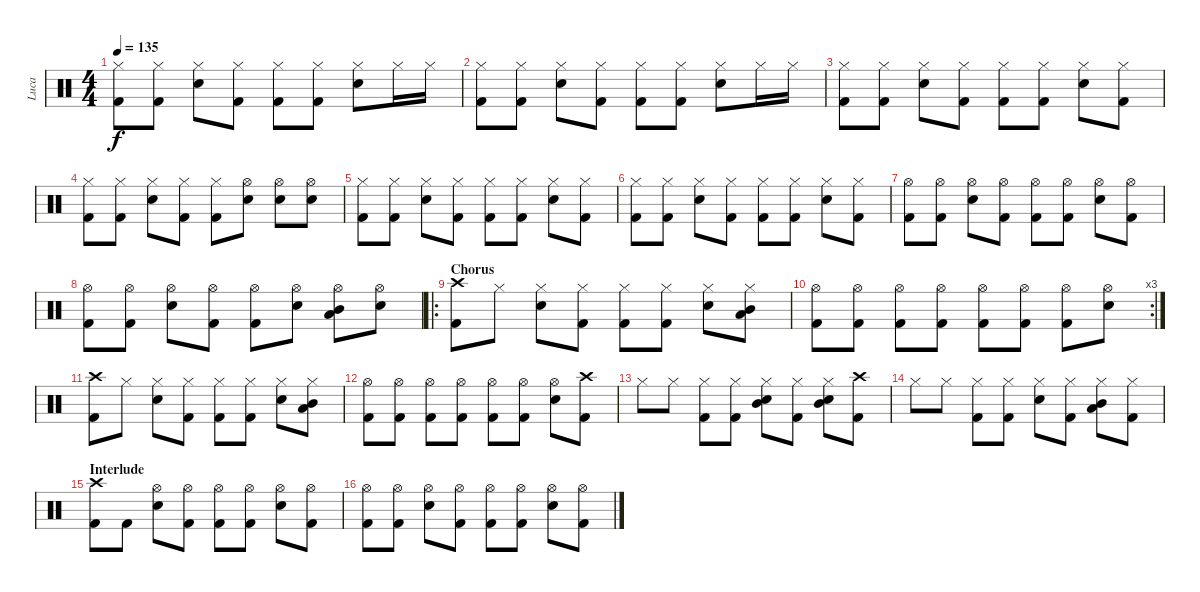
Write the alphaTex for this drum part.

\track ("Luca" "Luca") {instrument percussion}
\staff {score}
\articulation defaults
\ts (4 4)
\tempo 135
\clef neutral
\ks c
("Hi-Hat (closed)" "Kick (hit) 2").8{dy f} ("Hi-Hat (closed)" "Kick (hit) 2").8 ("Hi-Hat (closed)" "Snare (hit) 2").8 ("Hi-Hat (closed)" "Kick (hit) 2").8 ("Hi-Hat (closed)" "Kick (hit) 2").8 ("Hi-Hat (closed)" "Kick (hit) 2").8 ("Hi-Hat (closed)" "Snare (hit) 2").8 "Hi-Hat (closed)".16 "Hi-Hat (closed)".16 |
("Hi-Hat (closed)" "Kick (hit) 2").8 ("Hi-Hat (closed)" "Kick (hit) 2").8 ("Hi-Hat (closed)" "Snare (hit) 2").8 ("Hi-Hat (closed)" "Kick (hit) 2").8 ("Hi-Hat (closed)" "Kick (hit) 2").8 ("Hi-Hat (closed)" "Kick (hit) 2").8 ("Hi-Hat (closed)" "Snare (hit) 2").8 "Hi-Hat (closed)".16 "Hi-Hat (closed)".16 |
("Hi-Hat (closed)" "Kick (hit) 2").8 ("Hi-Hat (closed)" "Kick (hit) 2").8 ("Hi-Hat (closed)" "Snare (hit) 2").8 ("Hi-Hat (closed)" "Kick (hit) 2").8 ("Hi-Hat (closed)" "Kick (hit) 2").8 ("Hi-Hat (closed)" "Kick (hit) 2").8 ("Hi-Hat (closed)" "Snare (hit) 2").8 ("Hi-Hat (closed)" "Kick (hit) 2").8 |
("Hi-Hat (closed)" "Kick (hit) 2").8 ("Hi-Hat (closed)" "Kick (hit) 2").8 ("Hi-Hat (closed)" "Snare (hit) 2").8 ("Hi-Hat (closed)" "Kick (hit) 2").8 ("Hi-Hat (closed)" "Kick (hit) 2").8 ("Hi-Hat (open)" "Snare (hit) 2").8 ("Hi-Hat (open)" "Snare (hit) 2").8 ("Hi-Hat (open)" "Snare (hit) 2").8 |
("Hi-Hat (closed)" "Kick (hit) 2").8 ("Hi-Hat (closed)" "Kick (hit) 2").8 ("Hi-Hat (closed)" "Snare (hit) 2").8 ("Hi-Hat (closed)" "Kick (hit) 2").8 ("Hi-Hat (closed)" "Kick (hit) 2").8 ("Hi-Hat (closed)" "Kick (hit) 2").8 ("Hi-Hat (closed)" "Snare (hit) 2").8 ("Hi-Hat (closed)" "Kick (hit) 2").8 |
("Hi-Hat (closed)" "Kick (hit) 2").8 ("Hi-Hat (closed)" "Kick (hit) 2").8 ("Hi-Hat (closed)" "Snare (hit) 2").8 ("Hi-Hat (closed)" "Kick (hit) 2").8 ("Hi-Hat (closed)" "Kick (hit) 2").8 ("Hi-Hat (closed)" "Kick (hit) 2").8 ("Hi-Hat (closed)" "Snare (hit) 2").8 ("Hi-Hat (closed)" "Kick (hit) 2").8 |
("Hi-Hat (open)" "Kick (hit) 2").8 ("Hi-Hat (open)" "Kick (hit) 2").8 ("Hi-Hat (open)" "Snare (hit) 2").8 ("Hi-Hat (open)" "Kick (hit) 2").8 ("Hi-Hat (open)" "Kick (hit) 2").8 ("Hi-Hat (open)" "Kick (hit) 2").8 ("Hi-Hat (open)" "Snare (hit) 2").8 ("Hi-Hat (open)" "Kick (hit) 2").8 |
("Hi-Hat (open)" "Kick (hit) 2").8 ("Hi-Hat (open)" "Kick (hit) 2").8 ("Hi-Hat (open)" "Snare (hit) 2").8 ("Hi-Hat (open)" "Kick (hit) 2").8 ("Hi-Hat (open)" "Kick (hit) 2").8 ("Hi-Hat (open)" "Snare (hit) 2").8 ("Hi-Hat (open)" "Mid Tom (hit)" "Low Tom (hit)").8 ("Hi-Hat (open)" "Snare (hit) 2").8 |
\ro
\section ("" "Chorus")
("Crash high (hit)" "Kick (hit) 2").8 "Hi-Hat (closed)".8 ("Hi-Hat (closed)" "Snare (hit) 2").8 ("Hi-Hat (closed)" "Kick (hit) 2").8 ("Hi-Hat (closed)" "Kick (hit) 2").8 ("Hi-Hat (closed)" "Kick (hit) 2").8 ("Hi-Hat (closed)" "Snare (hit) 2").8 ("Hi-Hat (closed)" "Mid Tom (hit)" "Low Tom (hit)").8 |
\rc 3
("Hi-Hat (open)" "Kick (hit) 2").8 ("Hi-Hat (open)" "Kick (hit) 2").8 ("Hi-Hat (open)" "Kick (hit) 2").8 ("Hi-Hat (open)" "Kick (hit) 2").8 ("Hi-Hat (open)" "Kick (hit) 2").8 ("Hi-Hat (open)" "Kick (hit) 2").8 ("Hi-Hat (open)" "Kick (hit) 2").8 ("Hi-Hat (open)" "Snare (hit) 2").8 |
("Crash high (hit)" "Kick (hit) 2").8 "Hi-Hat (closed)".8 ("Hi-Hat (closed)" "Snare (hit) 2").8 ("Hi-Hat (closed)" "Kick (hit) 2").8 ("Hi-Hat (closed)" "Kick (hit) 2").8 ("Hi-Hat (closed)" "Kick (hit) 2").8 ("Hi-Hat (closed)" "Snare (hit) 2").8 ("Hi-Hat (closed)" "Mid Tom (hit)" "Low Tom (hit)").8 |
("Hi-Hat (open)" "Kick (hit) 2").8 ("Hi-Hat (open)" "Kick (hit) 2").8 ("Hi-Hat (open)" "Kick (hit) 2").8 ("Hi-Hat (open)" "Kick (hit) 2").8 ("Hi-Hat (open)" "Kick (hit) 2").8 ("Hi-Hat (open)" "Kick (hit) 2").8 ("Hi-Hat (open)" "Snare (hit) 2").8 ("Crash high (hit)" "Kick (hit) 2").8 |
"Hi-Hat (closed)".8 "Hi-Hat (closed)".8 ("Hi-Hat (closed)" "Kick (hit) 2").8 ("Hi-Hat (closed)" "Kick (hit) 2").8 ("Hi-Hat (closed)" "Mid Tom (hit)" "Snare (hit) 2").8 ("Hi-Hat (closed)" "Kick (hit) 2").8 ("Hi-Hat (closed)" "Mid Tom (hit)" "Snare (hit) 2").8 ("Crash high (hit)" "Kick (hit) 2").8 |
"Hi-Hat (closed)".8 "Hi-Hat (closed)".8 ("Hi-Hat (closed)" "Kick (hit) 2").8 ("Hi-Hat (closed)" "Kick (hit) 2").8 ("Hi-Hat (closed)" "Snare (hit) 2").8 ("Hi-Hat (closed)" "Kick (hit) 2").8 ("Hi-Hat (closed)" "Mid Tom (hit)" "Low Tom (hit)").8 ("Hi-Hat (closed)" "Kick (hit) 2").8 |
\section ("" "Interlude")
("Crash high (hit)" "Kick (hit) 2").8 "Kick (hit) 2".8 ("Hi-Hat (open)" "Snare (hit) 2").8 ("Hi-Hat (open)" "Kick (hit) 2").8 ("Hi-Hat (open)" "Kick (hit) 2").8 ("Hi-Hat (open)" "Kick (hit) 2").8 ("Hi-Hat (open)" "Snare (hit) 2").8 ("Hi-Hat (open)" "Kick (hit) 2").8 |
("Hi-Hat (open)" "Kick (hit) 2").8 ("Hi-Hat (open)" "Kick (hit) 2").8 ("Hi-Hat (open)" "Snare (hit) 2").8 ("Hi-Hat (open)" "Kick (hit) 2").8 ("Hi-Hat (open)" "Kick (hit) 2").8 ("Hi-Hat (open)" "Kick (hit) 2").8 ("Hi-Hat (open)" "Snare (hit) 2").8 ("Hi-Hat (open)" "Kick (hit) 2").8
